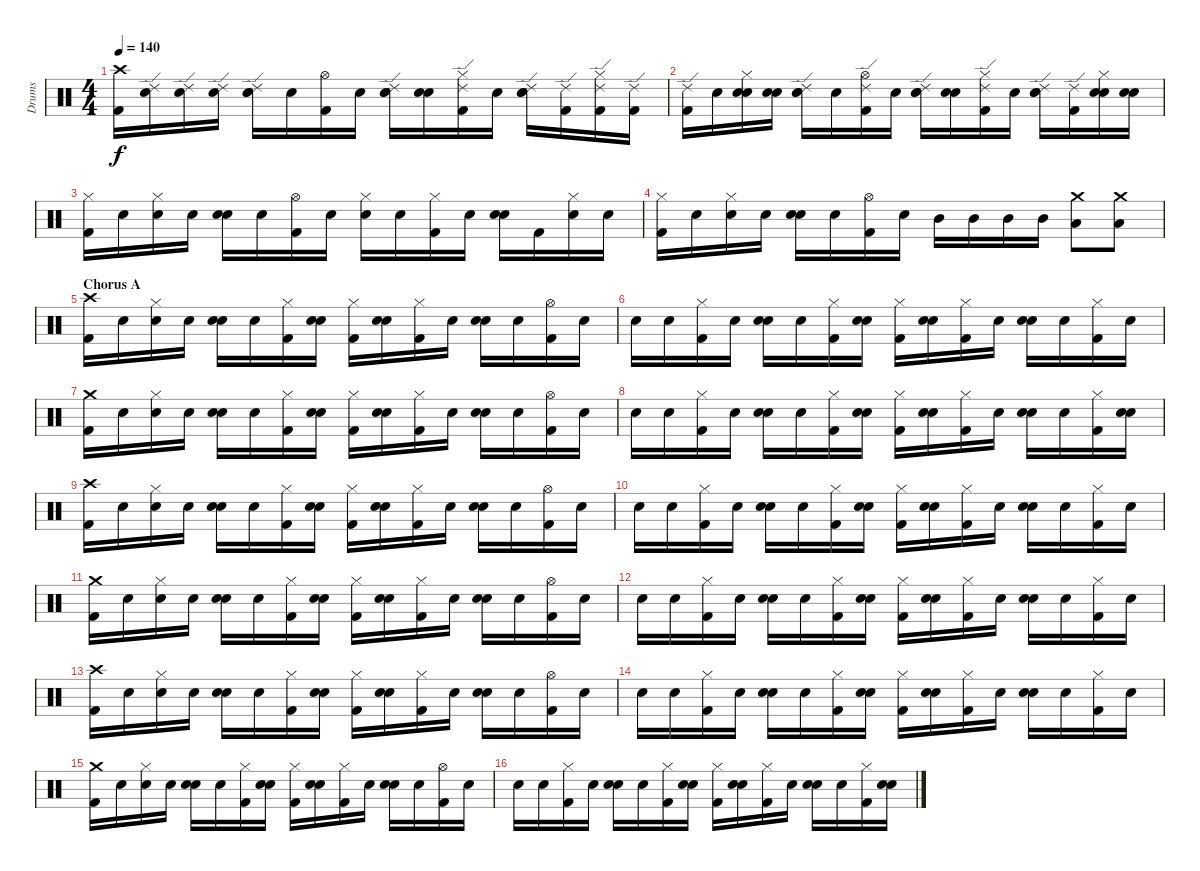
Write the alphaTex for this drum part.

\track ("Drums" "Drums") {instrument percussion}
\staff {score}
\articulation defaults
\ts (4 4)
\tempo 140
\clef neutral
\ks c
("Kick (hit) 2" "Crash high (hit)").16{dy f} ("Snare (hit)" "Ride (edge) 2").16 ("Snare (hit)" "Ride (edge) 2").16 ("Snare (hit)" "Ride (edge) 2").16 ("Snare (hit)" "Electric Snare (hit)" "Ride (edge) 2").16 "Snare (hit)".16 ("Kick (hit) 2" "Hi-Hat (open)").16 "Snare (hit)".16 ("Snare (hit)" "Snare (hit)" "Ride (edge) 2").16 ("Snare (hit)" "Snare (hit)").16 ("Kick (hit) 2" "Hi-Hat (closed)" "Ride (edge) 2").16 "Snare (hit)".16 ("Snare (hit)" "Electric Snare (hit)" "Ride (edge) 2").16 ("Kick (hit) 2" "Ride (edge) 2").16 ("Kick (hit) 2" "Hi-Hat (closed)" "Ride (edge) 2").16 ("Kick (hit) 2" "Ride (edge) 2").16 |
("Kick (hit) 2" "Ride (edge) 2").16 "Snare (hit)".16 ("Snare (hit)" "Hi-Hat (closed)" "Snare (hit)").16 ("Snare (hit)" "Snare (hit)").16 ("Snare (hit)" "Electric Snare (hit)" "Ride (edge) 2").16 "Snare (hit)".16 ("Kick (hit) 2" "Hi-Hat (open)" "Ride (edge) 2").16 "Snare (hit)".16 ("Snare (hit)" "Snare (hit)" "Ride (edge) 2").16 ("Snare (hit)" "Snare (hit)").16 ("Kick (hit) 2" "Hi-Hat (closed)" "Ride (edge) 2").16 "Snare (hit)".16 ("Snare (hit)" "Electric Snare (hit)" "Ride (edge) 2").16 ("Kick (hit) 2" "Ride (edge) 2").16 ("Snare (hit)" "Hi-Hat (closed)" "Snare (hit)").16 ("Snare (hit)" "Snare (hit)").16 |
("Kick (hit) 2" "Hi-Hat (closed)").16 "Snare (hit)".16 ("Snare (hit)" "Hi-Hat (closed)").16 "Snare (hit)".16 ("Snare (hit)" "Electric Snare (hit)").16 "Snare (hit)".16 ("Kick (hit) 2" "Hi-Hat (open)").16 "Snare (hit)".16 ("Snare (hit)" "Hi-Hat (closed)").16 "Snare (hit)".16 ("Kick (hit) 2" "Hi-Hat (closed)").16 "Snare (hit)".16 ("Snare (hit)" "Electric Snare (hit)").16 "Kick (hit) 2".16 ("Snare (hit)" "Hi-Hat (closed)").16 "Snare (hit)".16 |
("Kick (hit) 2" "Hi-Hat (closed)").16 "Snare (hit)".16 ("Snare (hit)" "Hi-Hat (closed)").16 "Snare (hit)".16 ("Snare (hit)" "Electric Snare (hit)").16 "Snare (hit)".16 ("Kick (hit) 2" "Hi-Hat (open)").16 "Snare (hit)".16 "Mid Tom (hit)".16 "Mid Tom (hit)".16 "Mid Tom (hit)".16 "Mid Tom (hit)".16 ("Low Tom (hit)" "Crash medium (hit)").8 ("Low Tom (hit)" "Crash medium (hit)").8 |
\section ("" "Chorus A")
("Kick (hit) 2" "Crash high (hit)").16 "Snare (hit)".16 ("Snare (hit)" "Hi-Hat (closed)").16 "Snare (hit)".16 ("Snare (hit)" "Electric Snare (hit)").16 "Snare (hit)".16 ("Kick (hit) 2" "Hi-Hat (closed)").16 ("Snare (hit)" "Electric Snare (hit)").16 ("Kick (hit) 2" "Hi-Hat (closed)").16 ("Snare (hit)" "Electric Snare (hit)").16 ("Kick (hit) 2" "Hi-Hat (closed)").16 "Snare (hit)".16 ("Snare (hit)" "Electric Snare (hit)").16 "Snare (hit)".16 ("Kick (hit) 2" "Hi-Hat (open)").16 "Snare (hit)".16 |
"Snare (hit)".16 "Snare (hit)".16 ("Kick (hit) 2" "Hi-Hat (closed)").16 "Snare (hit)".16 ("Snare (hit)" "Electric Snare (hit)").16 "Snare (hit)".16 ("Kick (hit) 2" "Hi-Hat (closed)").16 ("Snare (hit)" "Electric Snare (hit)").16 ("Kick (hit) 2" "Hi-Hat (closed)").16 ("Snare (hit)" "Electric Snare (hit)").16 ("Kick (hit) 2" "Hi-Hat (closed)").16 "Snare (hit)".16 ("Snare (hit)" "Electric Snare (hit)").16 "Snare (hit)".16 ("Kick (hit) 2" "Hi-Hat (closed)").16 "Snare (hit)".16 |
("Kick (hit) 2" "Crash medium (hit)").16 "Snare (hit)".16 ("Snare (hit)" "Hi-Hat (closed)").16 "Snare (hit)".16 ("Snare (hit)" "Electric Snare (hit)").16 "Snare (hit)".16 ("Kick (hit) 2" "Hi-Hat (closed)").16 ("Snare (hit)" "Electric Snare (hit)").16 ("Kick (hit) 2" "Hi-Hat (closed)").16 ("Snare (hit)" "Electric Snare (hit)").16 ("Kick (hit) 2" "Hi-Hat (closed)").16 "Snare (hit)".16 ("Snare (hit)" "Electric Snare (hit)").16 "Snare (hit)".16 ("Kick (hit) 2" "Hi-Hat (open)").16 "Snare (hit)".16 |
"Snare (hit)".16 "Snare (hit)".16 ("Kick (hit) 2" "Hi-Hat (closed)").16 "Snare (hit)".16 ("Snare (hit)" "Electric Snare (hit)").16 "Snare (hit)".16 ("Kick (hit) 2" "Hi-Hat (closed)").16 ("Snare (hit)" "Electric Snare (hit)").16 ("Kick (hit) 2" "Hi-Hat (closed)").16 ("Snare (hit)" "Electric Snare (hit)").16 ("Kick (hit) 2" "Hi-Hat (closed)").16 "Snare (hit)".16 ("Snare (hit)" "Electric Snare (hit)").16 "Snare (hit)".16 ("Kick (hit) 2" "Hi-Hat (closed)").16 ("Snare (hit)" "Electric Snare (hit)").16 |
("Kick (hit) 2" "Crash high (hit)").16 "Snare (hit)".16 ("Snare (hit)" "Hi-Hat (closed)").16 "Snare (hit)".16 ("Snare (hit)" "Electric Snare (hit)").16 "Snare (hit)".16 ("Kick (hit) 2" "Hi-Hat (closed)").16 ("Snare (hit)" "Electric Snare (hit)").16 ("Kick (hit) 2" "Hi-Hat (closed)").16 ("Snare (hit)" "Electric Snare (hit)").16 ("Kick (hit) 2" "Hi-Hat (closed)").16 "Snare (hit)".16 ("Snare (hit)" "Electric Snare (hit)").16 "Snare (hit)".16 ("Kick (hit) 2" "Hi-Hat (open)").16 "Snare (hit)".16 |
"Snare (hit)".16 "Snare (hit)".16 ("Kick (hit) 2" "Hi-Hat (closed)").16 "Snare (hit)".16 ("Snare (hit)" "Electric Snare (hit)").16 "Snare (hit)".16 ("Kick (hit) 2" "Hi-Hat (closed)").16 ("Snare (hit)" "Electric Snare (hit)").16 ("Kick (hit) 2" "Hi-Hat (closed)").16 ("Snare (hit)" "Electric Snare (hit)").16 ("Kick (hit) 2" "Hi-Hat (closed)").16 "Snare (hit)".16 ("Snare (hit)" "Electric Snare (hit)").16 "Snare (hit)".16 ("Kick (hit) 2" "Hi-Hat (closed)").16 "Snare (hit)".16 |
("Kick (hit) 2" "Crash medium (hit)").16 "Snare (hit)".16 ("Snare (hit)" "Hi-Hat (closed)").16 "Snare (hit)".16 ("Snare (hit)" "Electric Snare (hit)").16 "Snare (hit)".16 ("Kick (hit) 2" "Hi-Hat (closed)").16 ("Snare (hit)" "Electric Snare (hit)").16 ("Kick (hit) 2" "Hi-Hat (closed)").16 ("Snare (hit)" "Electric Snare (hit)").16 ("Kick (hit) 2" "Hi-Hat (closed)").16 "Snare (hit)".16 ("Snare (hit)" "Electric Snare (hit)").16 "Snare (hit)".16 ("Kick (hit) 2" "Hi-Hat (open)").16 "Snare (hit)".16 |
"Snare (hit)".16 "Snare (hit)".16 ("Kick (hit) 2" "Hi-Hat (closed)").16 "Snare (hit)".16 ("Snare (hit)" "Electric Snare (hit)").16 "Snare (hit)".16 ("Kick (hit) 2" "Hi-Hat (closed)").16 ("Snare (hit)" "Electric Snare (hit)").16 ("Kick (hit) 2" "Hi-Hat (closed)").16 ("Snare (hit)" "Electric Snare (hit)").16 ("Kick (hit) 2" "Hi-Hat (closed)").16 "Snare (hit)".16 ("Snare (hit)" "Electric Snare (hit)").16 "Snare (hit)".16 ("Kick (hit) 2" "Hi-Hat (closed)").16 "Snare (hit)".16 |
("Kick (hit) 2" "Crash high (hit)").16 "Snare (hit)".16 ("Snare (hit)" "Hi-Hat (closed)").16 "Snare (hit)".16 ("Snare (hit)" "Electric Snare (hit)").16 "Snare (hit)".16 ("Kick (hit) 2" "Hi-Hat (closed)").16 ("Snare (hit)" "Electric Snare (hit)").16 ("Kick (hit) 2" "Hi-Hat (closed)").16 ("Snare (hit)" "Electric Snare (hit)").16 ("Kick (hit) 2" "Hi-Hat (closed)").16 "Snare (hit)".16 ("Snare (hit)" "Electric Snare (hit)").16 "Snare (hit)".16 ("Kick (hit) 2" "Hi-Hat (open)").16 "Snare (hit)".16 |
"Snare (hit)".16 "Snare (hit)".16 ("Kick (hit) 2" "Hi-Hat (closed)").16 "Snare (hit)".16 ("Snare (hit)" "Electric Snare (hit)").16 "Snare (hit)".16 ("Kick (hit) 2" "Hi-Hat (closed)").16 ("Snare (hit)" "Electric Snare (hit)").16 ("Kick (hit) 2" "Hi-Hat (closed)").16 ("Snare (hit)" "Electric Snare (hit)").16 ("Kick (hit) 2" "Hi-Hat (closed)").16 "Snare (hit)".16 ("Snare (hit)" "Electric Snare (hit)").16 "Snare (hit)".16 ("Kick (hit) 2" "Hi-Hat (closed)").16 "Snare (hit)".16 |
("Kick (hit) 2" "Crash medium (hit)").16 "Snare (hit)".16 ("Snare (hit)" "Hi-Hat (closed)").16 "Snare (hit)".16 ("Snare (hit)" "Electric Snare (hit)").16 "Snare (hit)".16 ("Kick (hit) 2" "Hi-Hat (closed)").16 ("Snare (hit)" "Electric Snare (hit)").16 ("Kick (hit) 2" "Hi-Hat (closed)").16 ("Snare (hit)" "Electric Snare (hit)").16 ("Kick (hit) 2" "Hi-Hat (closed)").16 "Snare (hit)".16 ("Snare (hit)" "Electric Snare (hit)").16 "Snare (hit)".16 ("Kick (hit) 2" "Hi-Hat (open)").16 "Snare (hit)".16 |
"Snare (hit)".16 "Snare (hit)".16 ("Kick (hit) 2" "Hi-Hat (closed)").16 "Snare (hit)".16 ("Snare (hit)" "Electric Snare (hit)").16 "Snare (hit)".16 ("Kick (hit) 2" "Hi-Hat (closed)").16 ("Snare (hit)" "Electric Snare (hit)").16 ("Kick (hit) 2" "Hi-Hat (closed)").16 ("Snare (hit)" "Electric Snare (hit)").16 ("Kick (hit) 2" "Hi-Hat (closed)").16 "Snare (hit)".16 ("Snare (hit)" "Electric Snare (hit)").16 "Snare (hit)".16 ("Kick (hit) 2" "Hi-Hat (closed)").16 ("Snare (hit)" "Electric Snare (hit)").16
